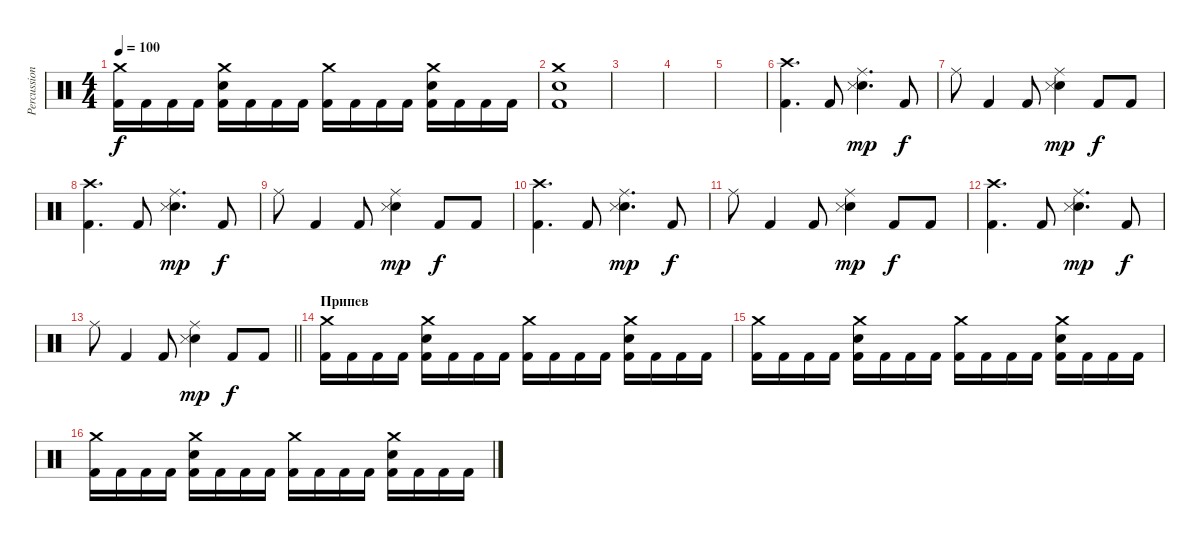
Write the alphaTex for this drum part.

\track ("Percussion" "Percussion") {instrument percussion}
\staff {score}
\articulation defaults
\ts (4 4)
\tempo 100
\clef neutral
\ks aminor
("Crash medium (hit)" "Kick (hit) 2").16{dy f} "Kick (hit) 2".16 "Kick (hit) 2".16 "Kick (hit) 2".16 ("Crash medium (hit)" "Snare (hit) 2" "Kick (hit) 2").16 "Kick (hit) 2".16 "Kick (hit) 2".16 "Kick (hit) 2".16 ("Crash medium (hit)" "Kick (hit) 2").16 "Kick (hit) 2".16 "Kick (hit) 2".16 "Kick (hit) 2".16 ("Crash medium (hit)" "Snare (hit) 2" "Kick (hit) 2").16 "Kick (hit) 2".16 "Kick (hit) 2".16 "Kick (hit) 2".16 |
("Crash medium (hit)" "Snare (hit) 2" "Kick (hit) 2").1 |
|
|
|
("Crash high (hit)" "Kick (hit) 2").4{d} "Kick (hit) 2".8 ("Ride (middle)" "Snare (hit) 2" "Snare (side stick) 3").4{d dy mp} "Kick (hit) 2".8{dy f} |
"Ride (middle)".8 "Kick (hit) 2".4 "Kick (hit) 2".8 ("Ride (middle)" "Snare (hit) 2" "Snare (side stick) 3").4{dy mp} "Kick (hit) 2".8{dy f} "Kick (hit) 2".8 |
("Crash high (hit)" "Kick (hit) 2").4{d} "Kick (hit) 2".8 ("Ride (middle)" "Snare (hit) 2" "Snare (side stick) 3").4{d dy mp} "Kick (hit) 2".8{dy f} |
"Ride (middle)".8 "Kick (hit) 2".4 "Kick (hit) 2".8 ("Ride (middle)" "Snare (hit) 2" "Snare (side stick) 3").4{dy mp} "Kick (hit) 2".8{dy f} "Kick (hit) 2".8 |
("Crash high (hit)" "Kick (hit) 2").4{d} "Kick (hit) 2".8 ("Ride (middle)" "Snare (hit) 2" "Snare (side stick) 3").4{d dy mp} "Kick (hit) 2".8{dy f} |
"Ride (middle)".8 "Kick (hit) 2".4 "Kick (hit) 2".8 ("Ride (middle)" "Snare (hit) 2" "Snare (side stick) 3").4{dy mp} "Kick (hit) 2".8{dy f} "Kick (hit) 2".8 |
("Crash high (hit)" "Kick (hit) 2").4{d} "Kick (hit) 2".8 ("Ride (middle)" "Snare (hit) 2" "Snare (side stick) 3").4{d dy mp} "Kick (hit) 2".8{dy f} |
\barLineRight lightlight "Ride (middle)".8 "Kick (hit) 2".4 "Kick (hit) 2".8
("Ride (middle)" "Snare (hit) 2" "Snare (side stick) 3").4{dy mp} "Kick (hit) 2".8{dy f} "Kick (hit) 2".8 |
\section ("" "Припев")
("Crash medium (hit)" "Kick (hit) 2").16 "Kick (hit) 2".16 "Kick (hit) 2".16 "Kick (hit) 2".16 ("Crash medium (hit)" "Snare (hit) 2" "Kick (hit) 2").16 "Kick (hit) 2".16 "Kick (hit) 2".16 "Kick (hit) 2".16 ("Crash medium (hit)" "Kick (hit) 2").16 "Kick (hit) 2".16 "Kick (hit) 2".16 "Kick (hit) 2".16 ("Crash medium (hit)" "Snare (hit) 2" "Kick (hit) 2").16 "Kick (hit) 2".16 "Kick (hit) 2".16 "Kick (hit) 2".16 |
("Crash medium (hit)" "Kick (hit) 2").16 "Kick (hit) 2".16 "Kick (hit) 2".16 "Kick (hit) 2".16 ("Crash medium (hit)" "Snare (hit) 2" "Kick (hit) 2").16 "Kick (hit) 2".16 "Kick (hit) 2".16 "Kick (hit) 2".16 ("Crash medium (hit)" "Kick (hit) 2").16 "Kick (hit) 2".16 "Kick (hit) 2".16 "Kick (hit) 2".16 ("Crash medium (hit)" "Snare (hit) 2" "Kick (hit) 2").16 "Kick (hit) 2".16 "Kick (hit) 2".16 "Kick (hit) 2".16 |
("Crash medium (hit)" "Kick (hit) 2").16 "Kick (hit) 2".16 "Kick (hit) 2".16 "Kick (hit) 2".16 ("Crash medium (hit)" "Snare (hit) 2" "Kick (hit) 2").16 "Kick (hit) 2".16 "Kick (hit) 2".16 "Kick (hit) 2".16 ("Crash medium (hit)" "Kick (hit) 2").16 "Kick (hit) 2".16 "Kick (hit) 2".16 "Kick (hit) 2".16 ("Crash medium (hit)" "Snare (hit) 2" "Kick (hit) 2").16 "Kick (hit) 2".16 "Kick (hit) 2".16 "Kick (hit) 2".16
